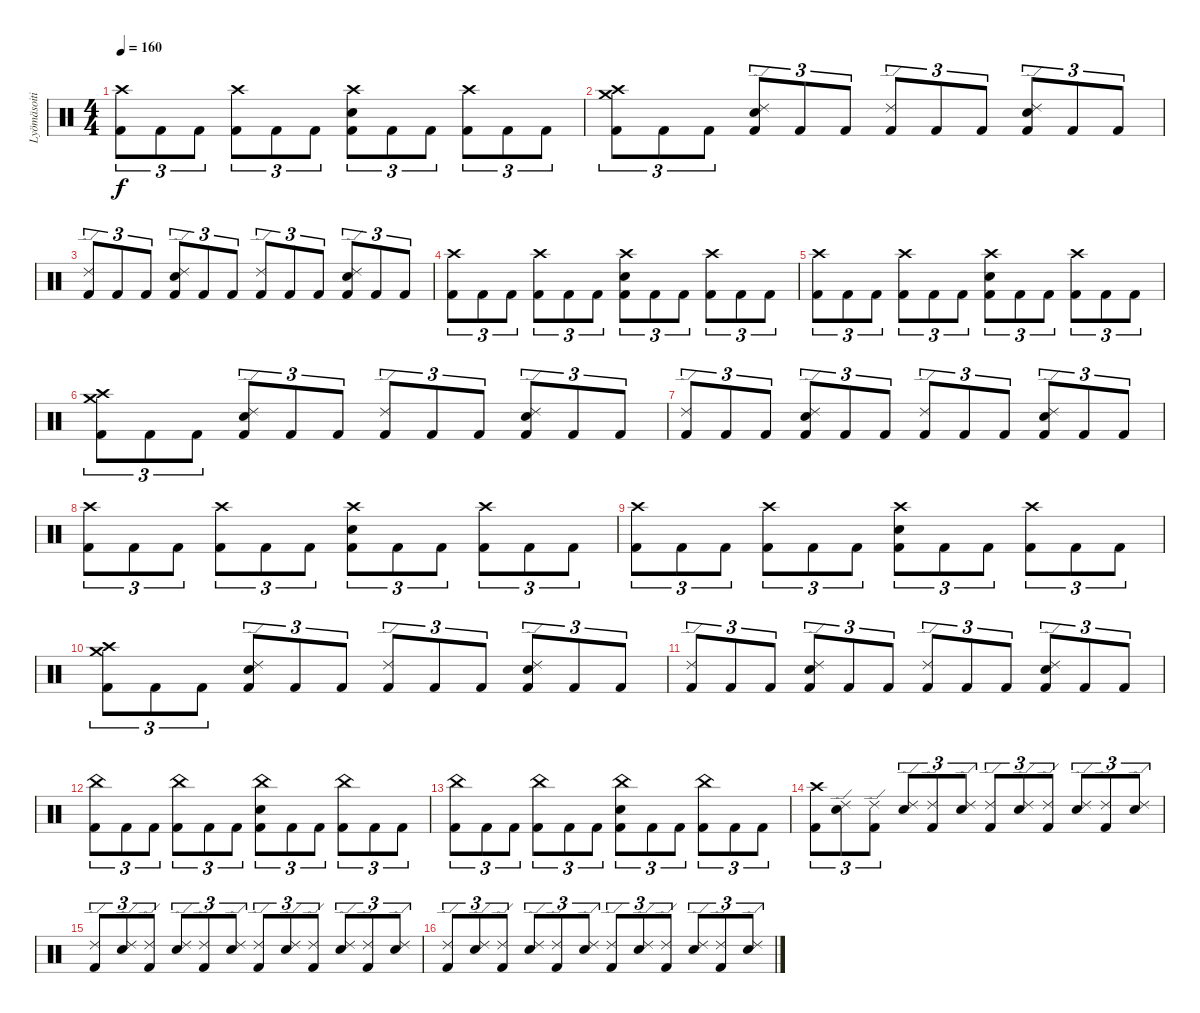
\track ("Lyömäsoitin" "Lyömäsoiti") {instrument percussion}
\staff {score}
\articulation defaults
\ts (4 4)
\tempo 160
\clef neutral
\ks c
("Crash high (hit)" "Kick (hit) 2").8{tu (3 2) dy f} "Kick (hit) 2".8{tu (3 2)} "Kick (hit) 2".8{tu (3 2)} ("Crash high (hit)" "Kick (hit) 2").8{tu (3 2)} "Kick (hit) 2".8{tu (3 2)} "Kick (hit) 2".8{tu (3 2)} ("Crash high (hit)" "Snare (hit) 2" "Kick (hit) 2").8{tu (3 2)} "Kick (hit) 2".8{tu (3 2)} "Kick (hit) 2".8{tu (3 2)} ("Crash high (hit)" "Kick (hit) 2").8{tu (3 2)} "Kick (hit) 2".8{tu (3 2)} "Kick (hit) 2".8{tu (3 2)} |
("Crash medium (hit)" "Crash high (hit)" "Kick (hit) 2").8{tu (3 2)} "Kick (hit) 2".8{tu (3 2)} "Kick (hit) 2".8{tu (3 2)} ("Ride (edge) 2" "Snare (hit) 2" "Kick (hit) 2").8{tu (3 2)} "Kick (hit) 2".8{tu (3 2)} "Kick (hit) 2".8{tu (3 2)} ("Ride (edge) 2" "Kick (hit) 2").8{tu (3 2)} "Kick (hit) 2".8{tu (3 2)} "Kick (hit) 2".8{tu (3 2)} ("Ride (edge) 2" "Snare (hit) 2" "Kick (hit) 2").8{tu (3 2)} "Kick (hit) 2".8{tu (3 2)} "Kick (hit) 2".8{tu (3 2)} |
("Ride (edge) 2" "Kick (hit) 2").8{tu (3 2)} "Kick (hit) 2".8{tu (3 2)} "Kick (hit) 2".8{tu (3 2)} ("Ride (edge) 2" "Snare (hit) 2" "Kick (hit) 2").8{tu (3 2)} "Kick (hit) 2".8{tu (3 2)} "Kick (hit) 2".8{tu (3 2)} ("Ride (edge) 2" "Kick (hit) 2").8{tu (3 2)} "Kick (hit) 2".8{tu (3 2)} "Kick (hit) 2".8{tu (3 2)} ("Ride (edge) 2" "Snare (hit) 2" "Kick (hit) 2").8{tu (3 2)} "Kick (hit) 2".8{tu (3 2)} "Kick (hit) 2".8{tu (3 2)} |
("Crash high (hit)" "Kick (hit) 2").8{tu (3 2)} "Kick (hit) 2".8{tu (3 2)} "Kick (hit) 2".8{tu (3 2)} ("Crash high (hit)" "Kick (hit) 2").8{tu (3 2)} "Kick (hit) 2".8{tu (3 2)} "Kick (hit) 2".8{tu (3 2)} ("Crash high (hit)" "Snare (hit) 2" "Kick (hit) 2").8{tu (3 2)} "Kick (hit) 2".8{tu (3 2)} "Kick (hit) 2".8{tu (3 2)} ("Crash high (hit)" "Kick (hit) 2").8{tu (3 2)} "Kick (hit) 2".8{tu (3 2)} "Kick (hit) 2".8{tu (3 2)} |
("Crash high (hit)" "Kick (hit) 2").8{tu (3 2)} "Kick (hit) 2".8{tu (3 2)} "Kick (hit) 2".8{tu (3 2)} ("Crash high (hit)" "Kick (hit) 2").8{tu (3 2)} "Kick (hit) 2".8{tu (3 2)} "Kick (hit) 2".8{tu (3 2)} ("Crash high (hit)" "Snare (hit) 2" "Kick (hit) 2").8{tu (3 2)} "Kick (hit) 2".8{tu (3 2)} "Kick (hit) 2".8{tu (3 2)} ("Crash high (hit)" "Kick (hit) 2").8{tu (3 2)} "Kick (hit) 2".8{tu (3 2)} "Kick (hit) 2".8{tu (3 2)} |
("Crash medium (hit)" "Crash high (hit)" "Kick (hit) 2").8{tu (3 2)} "Kick (hit) 2".8{tu (3 2)} "Kick (hit) 2".8{tu (3 2)} ("Ride (edge) 2" "Snare (hit) 2" "Kick (hit) 2").8{tu (3 2)} "Kick (hit) 2".8{tu (3 2)} "Kick (hit) 2".8{tu (3 2)} ("Ride (edge) 2" "Kick (hit) 2").8{tu (3 2)} "Kick (hit) 2".8{tu (3 2)} "Kick (hit) 2".8{tu (3 2)} ("Ride (edge) 2" "Snare (hit) 2" "Kick (hit) 2").8{tu (3 2)} "Kick (hit) 2".8{tu (3 2)} "Kick (hit) 2".8{tu (3 2)} |
("Ride (edge) 2" "Kick (hit) 2").8{tu (3 2)} "Kick (hit) 2".8{tu (3 2)} "Kick (hit) 2".8{tu (3 2)} ("Ride (edge) 2" "Snare (hit) 2" "Kick (hit) 2").8{tu (3 2)} "Kick (hit) 2".8{tu (3 2)} "Kick (hit) 2".8{tu (3 2)} ("Ride (edge) 2" "Kick (hit) 2").8{tu (3 2)} "Kick (hit) 2".8{tu (3 2)} "Kick (hit) 2".8{tu (3 2)} ("Ride (edge) 2" "Snare (hit) 2" "Kick (hit) 2").8{tu (3 2)} "Kick (hit) 2".8{tu (3 2)} "Kick (hit) 2".8{tu (3 2)} |
("Crash high (hit)" "Kick (hit) 2").8{tu (3 2)} "Kick (hit) 2".8{tu (3 2)} "Kick (hit) 2".8{tu (3 2)} ("Crash high (hit)" "Kick (hit) 2").8{tu (3 2)} "Kick (hit) 2".8{tu (3 2)} "Kick (hit) 2".8{tu (3 2)} ("Crash high (hit)" "Snare (hit) 2" "Kick (hit) 2").8{tu (3 2)} "Kick (hit) 2".8{tu (3 2)} "Kick (hit) 2".8{tu (3 2)} ("Crash high (hit)" "Kick (hit) 2").8{tu (3 2)} "Kick (hit) 2".8{tu (3 2)} "Kick (hit) 2".8{tu (3 2)} |
("Crash high (hit)" "Kick (hit) 2").8{tu (3 2)} "Kick (hit) 2".8{tu (3 2)} "Kick (hit) 2".8{tu (3 2)} ("Crash high (hit)" "Kick (hit) 2").8{tu (3 2)} "Kick (hit) 2".8{tu (3 2)} "Kick (hit) 2".8{tu (3 2)} ("Crash high (hit)" "Snare (hit) 2" "Kick (hit) 2").8{tu (3 2)} "Kick (hit) 2".8{tu (3 2)} "Kick (hit) 2".8{tu (3 2)} ("Crash high (hit)" "Kick (hit) 2").8{tu (3 2)} "Kick (hit) 2".8{tu (3 2)} "Kick (hit) 2".8{tu (3 2)} |
("Crash medium (hit)" "Crash high (hit)" "Kick (hit) 2").8{tu (3 2)} "Kick (hit) 2".8{tu (3 2)} "Kick (hit) 2".8{tu (3 2)} ("Ride (edge) 2" "Snare (hit) 2" "Kick (hit) 2").8{tu (3 2)} "Kick (hit) 2".8{tu (3 2)} "Kick (hit) 2".8{tu (3 2)} ("Ride (edge) 2" "Kick (hit) 2").8{tu (3 2)} "Kick (hit) 2".8{tu (3 2)} "Kick (hit) 2".8{tu (3 2)} ("Ride (edge) 2" "Snare (hit) 2" "Kick (hit) 2").8{tu (3 2)} "Kick (hit) 2".8{tu (3 2)} "Kick (hit) 2".8{tu (3 2)} |
("Ride (edge) 2" "Kick (hit) 2").8{tu (3 2)} "Kick (hit) 2".8{tu (3 2)} "Kick (hit) 2".8{tu (3 2)} ("Ride (edge) 2" "Snare (hit) 2" "Kick (hit) 2").8{tu (3 2)} "Kick (hit) 2".8{tu (3 2)} "Kick (hit) 2".8{tu (3 2)} ("Ride (edge) 2" "Kick (hit) 2").8{tu (3 2)} "Kick (hit) 2".8{tu (3 2)} "Kick (hit) 2".8{tu (3 2)} ("Ride (edge) 2" "Snare (hit) 2" "Kick (hit) 2").8{tu (3 2)} "Kick (hit) 2".8{tu (3 2)} "Kick (hit) 2".8{tu (3 2)} |
("China (hit)" "Kick (hit) 2").8{tu (3 2)} "Kick (hit) 2".8{tu (3 2)} "Kick (hit) 2".8{tu (3 2)} ("China (hit)" "Kick (hit) 2").8{tu (3 2)} "Kick (hit) 2".8{tu (3 2)} "Kick (hit) 2".8{tu (3 2)} ("China (hit)" "Snare (hit) 2" "Kick (hit) 2").8{tu (3 2)} "Kick (hit) 2".8{tu (3 2)} "Kick (hit) 2".8{tu (3 2)} ("China (hit)" "Kick (hit) 2").8{tu (3 2)} "Kick (hit) 2".8{tu (3 2)} "Kick (hit) 2".8{tu (3 2)} |
("China (hit)" "Kick (hit) 2").8{tu (3 2)} "Kick (hit) 2".8{tu (3 2)} "Kick (hit) 2".8{tu (3 2)} ("China (hit)" "Kick (hit) 2").8{tu (3 2)} "Kick (hit) 2".8{tu (3 2)} "Kick (hit) 2".8{tu (3 2)} ("China (hit)" "Snare (hit) 2" "Kick (hit) 2").8{tu (3 2)} "Kick (hit) 2".8{tu (3 2)} "Kick (hit) 2".8{tu (3 2)} ("China (hit)" "Kick (hit) 2").8{tu (3 2)} "Kick (hit) 2".8{tu (3 2)} "Kick (hit) 2".8{tu (3 2)} |
("Crash high (hit)" "Kick (hit) 2").8{tu (3 2)} ("Ride (edge) 2" "Snare (hit) 2").8{tu (3 2)} ("Ride (edge) 2" "Kick (hit) 2").8{tu (3 2)} ("Ride (edge) 2" "Snare (hit) 2").8{tu (3 2)} ("Ride (edge) 2" "Kick (hit) 2").8{tu (3 2)} ("Ride (edge) 2" "Snare (hit) 2").8{tu (3 2)} ("Ride (edge) 2" "Kick (hit) 2").8{tu (3 2)} ("Ride (edge) 2" "Snare (hit) 2").8{tu (3 2)} ("Ride (edge) 2" "Kick (hit) 2").8{tu (3 2)} ("Ride (edge) 2" "Snare (hit) 2").8{tu (3 2)} ("Ride (edge) 2" "Kick (hit) 2").8{tu (3 2)} ("Ride (edge) 2" "Snare (hit) 2").8{tu (3 2)} |
("Ride (edge) 2" "Kick (hit) 2").8{tu (3 2)} ("Ride (edge) 2" "Snare (hit) 2").8{tu (3 2)} ("Ride (edge) 2" "Kick (hit) 2").8{tu (3 2)} ("Ride (edge) 2" "Snare (hit) 2").8{tu (3 2)} ("Ride (edge) 2" "Kick (hit) 2").8{tu (3 2)} ("Ride (edge) 2" "Snare (hit) 2").8{tu (3 2)} ("Ride (edge) 2" "Kick (hit) 2").8{tu (3 2)} ("Ride (edge) 2" "Snare (hit) 2").8{tu (3 2)} ("Ride (edge) 2" "Kick (hit) 2").8{tu (3 2)} ("Ride (edge) 2" "Snare (hit) 2").8{tu (3 2)} ("Ride (edge) 2" "Kick (hit) 2").8{tu (3 2)} ("Ride (edge) 2" "Snare (hit) 2").8{tu (3 2)} |
("Ride (edge) 2" "Kick (hit) 2").8{tu (3 2)} ("Ride (edge) 2" "Snare (hit) 2").8{tu (3 2)} ("Ride (edge) 2" "Kick (hit) 2").8{tu (3 2)} ("Ride (edge) 2" "Snare (hit) 2").8{tu (3 2)} ("Ride (edge) 2" "Kick (hit) 2").8{tu (3 2)} ("Ride (edge) 2" "Snare (hit) 2").8{tu (3 2)} ("Ride (edge) 2" "Kick (hit) 2").8{tu (3 2)} ("Ride (edge) 2" "Snare (hit) 2").8{tu (3 2)} ("Ride (edge) 2" "Kick (hit) 2").8{tu (3 2)} ("Ride (edge) 2" "Snare (hit) 2").8{tu (3 2)} ("Ride (edge) 2" "Kick (hit) 2").8{tu (3 2)} ("Ride (edge) 2" "Snare (hit) 2").8{tu (3 2)}
